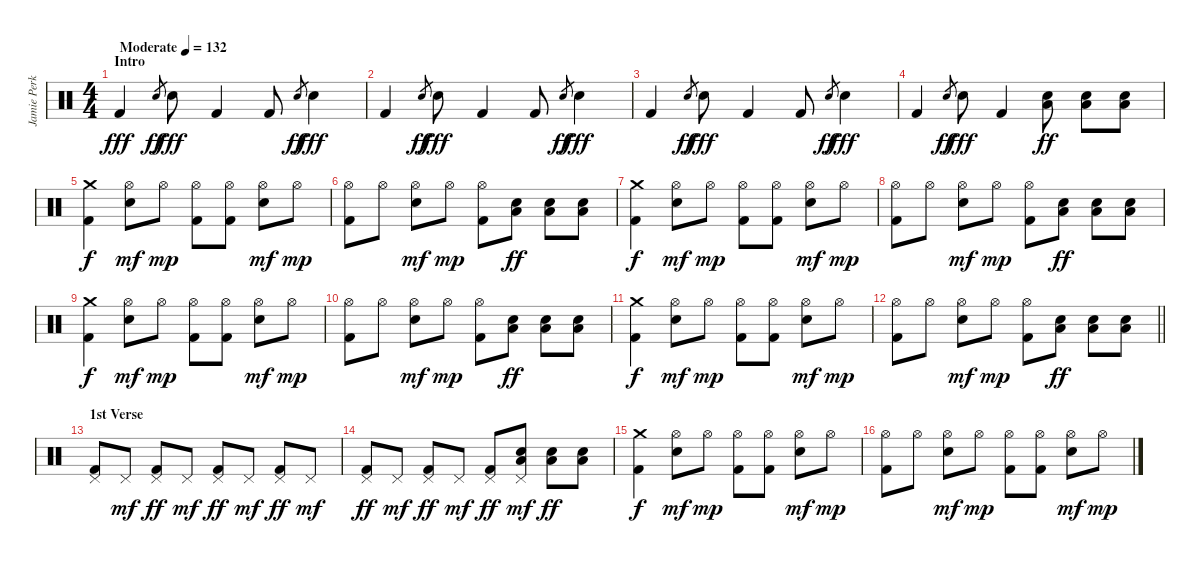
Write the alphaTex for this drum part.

\track ("Jamie Perkins" "Jamie Perk") {instrument percussion}
\staff {score}
\articulation defaults
\ts (4 4)
\section ("" "Intro")
\tempo (132 "Moderate")
\clef neutral
\ks c "Kick (hit) 2".4{dy fff} "Snare (hit) 2".8{gr dy ff} "Snare (hit) 2".8{dy fff} "Kick (hit) 2".4 "Kick (hit) 2".8 "Snare (hit) 2".8{gr dy ff} "Snare (hit) 2".4{dy fff}
|
"Kick (hit) 2".4 "Snare (hit) 2".8{gr dy ff} "Snare (hit) 2".8{dy fff} "Kick (hit) 2".4 "Kick (hit) 2".8 "Snare (hit) 2".8{gr dy ff} "Snare (hit) 2".4{dy fff} |
"Kick (hit) 2".4 "Snare (hit) 2".8{gr dy ff} "Snare (hit) 2".8{dy fff} "Kick (hit) 2".4 "Kick (hit) 2".8 "Snare (hit) 2".8{gr dy ff} "Snare (hit) 2".4{dy fff} |
"Kick (hit) 2".4 "Snare (hit) 2".8{gr dy ff} "Snare (hit) 2".8{dy fff} "Kick (hit) 2".4 ("Low Tom (hit)" "Snare (hit) 2").8{dy ff} ("Low Tom (hit)" "Snare (hit) 2").8 ("Low Tom (hit)" "Snare (hit) 2").8 |
("Crash medium (hit)" "Kick (hit) 2").4{dy f} ("Hi-Hat (open)" "Snare (hit) 2").8{dy mf} "Hi-Hat (open)".8{dy mp} ("Hi-Hat (open)" "Kick (hit) 2").8 ("Hi-Hat (open)" "Kick (hit) 2").8 ("Hi-Hat (open)" "Snare (hit) 2").8{dy mf} "Hi-Hat (open)".8{dy mp} |
("Hi-Hat (open)" "Kick (hit) 2").8 "Hi-Hat (open)".8 ("Hi-Hat (open)" "Snare (hit) 2").8{dy mf} "Hi-Hat (open)".8{dy mp} ("Hi-Hat (open)" "Kick (hit) 2").8 ("Low Tom (hit)" "Snare (hit) 2").8{dy ff} ("Low Tom (hit)" "Snare (hit) 2").8 ("Low Tom (hit)" "Snare (hit) 2").8 |
("Crash medium (hit)" "Kick (hit) 2").4{dy f} ("Hi-Hat (open)" "Snare (hit) 2").8{dy mf} "Hi-Hat (open)".8{dy mp} ("Hi-Hat (open)" "Kick (hit) 2").8 ("Hi-Hat (open)" "Kick (hit) 2").8 ("Hi-Hat (open)" "Snare (hit) 2").8{dy mf} "Hi-Hat (open)".8{dy mp} |
("Hi-Hat (open)" "Kick (hit) 2").8 "Hi-Hat (open)".8 ("Hi-Hat (open)" "Snare (hit) 2").8{dy mf} "Hi-Hat (open)".8{dy mp} ("Hi-Hat (open)" "Kick (hit) 2").8 ("Low Tom (hit)" "Snare (hit) 2").8{dy ff} ("Low Tom (hit)" "Snare (hit) 2").8 ("Low Tom (hit)" "Snare (hit) 2").8 |
("Crash medium (hit)" "Kick (hit) 2").4{dy f} ("Hi-Hat (open)" "Snare (hit) 2").8{dy mf} "Hi-Hat (open)".8{dy mp} ("Hi-Hat (open)" "Kick (hit) 2").8 ("Hi-Hat (open)" "Kick (hit) 2").8 ("Hi-Hat (open)" "Snare (hit) 2").8{dy mf} "Hi-Hat (open)".8{dy mp} |
("Hi-Hat (open)" "Kick (hit) 2").8 "Hi-Hat (open)".8 ("Hi-Hat (open)" "Snare (hit) 2").8{dy mf} "Hi-Hat (open)".8{dy mp} ("Hi-Hat (open)" "Kick (hit) 2").8 ("Low Tom (hit)" "Snare (hit) 2").8{dy ff} ("Low Tom (hit)" "Snare (hit) 2").8 ("Low Tom (hit)" "Snare (hit) 2").8 |
("Crash medium (hit)" "Kick (hit) 2").4{dy f} ("Hi-Hat (open)" "Snare (hit) 2").8{dy mf} "Hi-Hat (open)".8{dy mp} ("Hi-Hat (open)" "Kick (hit) 2").8 ("Hi-Hat (open)" "Kick (hit) 2").8 ("Hi-Hat (open)" "Snare (hit) 2").8{dy mf} "Hi-Hat (open)".8{dy mp} |
\barLineRight lightlight
("Hi-Hat (open)" "Kick (hit) 2").8 "Hi-Hat (open)".8 ("Hi-Hat (open)" "Snare (hit) 2").8{dy mf} "Hi-Hat (open)".8{dy mp} ("Hi-Hat (open)" "Kick (hit) 2").8 ("Low Tom (hit)" "Snare (hit) 2").8{dy ff} ("Low Tom (hit)" "Snare (hit) 2").8 ("Low Tom (hit)" "Snare (hit) 2").8 |
\section ("" "1st Verse")
("Pedal Hi-Hat (hit)" "Kick (hit) 2").8 "Pedal Hi-Hat (hit)".8{dy mf} ("Pedal Hi-Hat (hit)" "Kick (hit) 2").8{dy ff} "Pedal Hi-Hat (hit)".8{dy mf} ("Pedal Hi-Hat (hit)" "Kick (hit) 2").8{dy ff} "Pedal Hi-Hat (hit)".8{dy mf} ("Pedal Hi-Hat (hit)" "Kick (hit) 2").8{dy ff} "Pedal Hi-Hat (hit)".8{dy mf} |
("Pedal Hi-Hat (hit)" "Kick (hit) 2").8{dy ff} "Pedal Hi-Hat (hit)".8{dy mf} ("Pedal Hi-Hat (hit)" "Kick (hit) 2").8{dy ff} "Pedal Hi-Hat (hit)".8{dy mf} ("Pedal Hi-Hat (hit)" "Kick (hit) 2").8{dy ff} ("Low Tom (hit)" "Snare (hit) 2" "Pedal Hi-Hat (hit)").8{dy mf} ("Low Tom (hit)" "Snare (hit) 2").8{dy ff} ("Low Tom (hit)" "Snare (hit) 2").8 |
("Crash medium (hit)" "Kick (hit) 2").4{dy f} ("Hi-Hat (open)" "Snare (hit) 2").8{dy mf} "Hi-Hat (open)".8{dy mp} ("Hi-Hat (open)" "Kick (hit) 2").8 ("Hi-Hat (open)" "Kick (hit) 2").8 ("Hi-Hat (open)" "Snare (hit) 2").8{dy mf} "Hi-Hat (open)".8{dy mp} |
("Hi-Hat (open)" "Kick (hit) 2").8 "Hi-Hat (open)".8 ("Hi-Hat (open)" "Snare (hit) 2").8{dy mf} "Hi-Hat (open)".8{dy mp} ("Hi-Hat (open)" "Kick (hit) 2").8 ("Hi-Hat (open)" "Kick (hit) 2").8 ("Hi-Hat (open)" "Snare (hit) 2").8{dy mf} "Hi-Hat (open)".8{dy mp}
